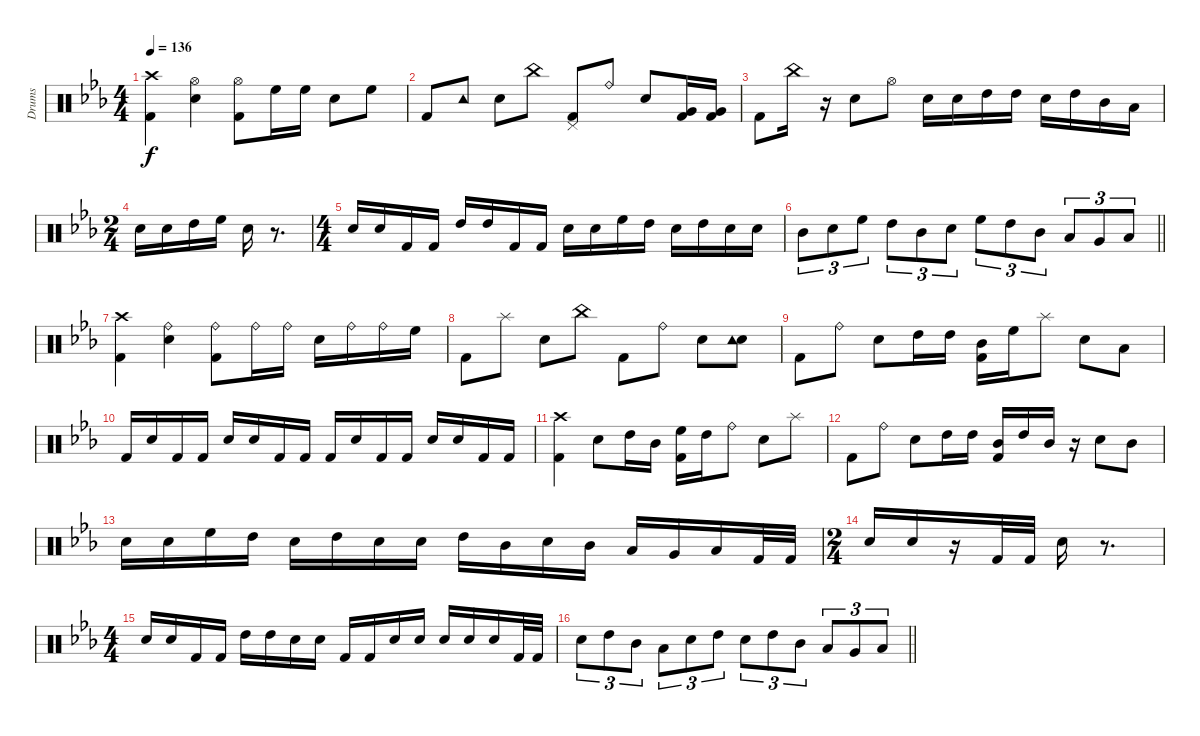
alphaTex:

\track ("Drums" "Drums") {instrument percussion}
\staff {score}
\articulation defaults
\ts (4 4)
\tempo 136
\clef neutral
\ks cminor
("Crash high (hit)" "Kick (hit) 2").4{dy f} ("Electric Snare (hit)" "Hi-Hat (open)").4 ("Kick (hit) 2" "Hi-Hat (open)").8 "High Floor Tom (hit)".16 "High Floor Tom (hit)".16 "Electric Snare (hit)".8 "High Floor Tom (hit)".8 |
"Kick (hit) 2".8 "Tambourine (hit)".8 "Electric Snare (hit)".8 "China (hit)".8 ("Kick (hit) 2" "Pedal Hi-Hat (hit)").8 "Ride (bell)".8 "Electric Snare (hit)".8 ("Kick (hit) 2" "Very Low Tom (hit)").16 ("Kick (hit) 2" "Very Low Tom (hit)").16 |
"Kick (hit) 2".8 "China (hit)".16 r.16 "Electric Snare (hit)".8 "Hi-Hat (open)".8 "Electric Snare (hit)".16 "Electric Snare (hit)".16 "High Tom (hit)".16 "High Tom (hit)".16 "Electric Snare (hit)".16 "High Tom (hit)".16 "Mid Tom (hit)".16 "Low Tom (hit)".16 |
\ts (2 4)
"Electric Snare (hit)".16 "Electric Snare (hit)".16 "High Tom (hit)".16 "High Floor Tom (hit)".16 "Electric Snare (hit)".16 r.8{d} |
\ts (4 4)
"Electric Snare (hit)".16 "Electric Snare (hit)".16 "Kick (hit) 2".16 "Kick (hit) 2".16 "High Tom (hit)".16 "High Tom (hit)".16 "Kick (hit) 2".16 "Kick (hit) 2".16 "Electric Snare (hit)".16 "Electric Snare (hit)".16 "High Floor Tom (hit)".16 "High Tom (hit)".16 "Electric Snare (hit)".16 "High Tom (hit)".16 "Electric Snare (hit)".16 "Electric Snare (hit)".16 |
\barLineRight lightlight "Mid Tom (hit)".8{tu (3 2)} "Electric Snare (hit)".8{tu (3 2)} "High Floor Tom (hit)".8{tu (3 2)} "High Tom (hit)".8{tu (3 2)} "Mid Tom (hit)".8{tu (3 2)} "Electric Snare (hit)".8{tu (3 2)} "High Floor Tom (hit)".8{tu (3 2)} "High Tom (hit)".8{tu (3 2)} "Mid Tom (hit)".8{tu (3 2)} "Low Tom (hit)".8{tu (3 2)} "Very Low Tom (hit)".8{tu (3 2)} "Low Floor Tom (hit)".8{tu (3 2)}
|
("Kick (hit) 2" "Crash high (hit)").4 ("Electric Snare (hit)" "Ride (bell)").4 ("Kick (hit) 2" "Ride (bell)").8 "Ride (bell)".16 "Ride (bell)".16 "Electric Snare (hit)".16 "Ride (bell)".16 "Ride (bell)".16 "High Floor Tom (hit)".16 |
"Kick (hit) 2".8 "Splash (hit)".8 "Electric Snare (hit)".8 "China (hit)".8 "Kick (hit) 2".8 "Ride (bell)".8 "Electric Snare (hit)".8 ("Electric Snare (hit)" "Tambourine (hit)").8 |
"Kick (hit) 2".8 "Ride (bell)".8 "Electric Snare (hit)".8 "High Tom (hit)".16 "High Tom (hit)".16 ("Kick (hit) 2" "Mid Tom (hit)").16 "High Floor Tom (hit)".16 "Splash (hit)".8 "Electric Snare (hit)".8 "Low Tom (hit)".8 |
"Kick (hit) 2".16 "Electric Snare (hit)".16 "Kick (hit) 2".16 "Kick (hit) 2".16 "Electric Snare (hit)".16 "Electric Snare (hit)".16 "Kick (hit) 2".16 "Kick (hit) 2".16 "Kick (hit) 2".16 "Electric Snare (hit)".16 "Kick (hit) 2".16 "Kick (hit) 2".16 "Electric Snare (hit)".16 "Electric Snare (hit)".16 "Kick (hit) 2".16 "Kick (hit) 2".16 |
("Crash high (hit)" "Kick (hit) 2").4 "Electric Snare (hit)".8 "High Tom (hit)".16 "Mid Tom (hit)".16 ("Kick (hit) 2" "High Floor Tom (hit)").16 "High Tom (hit)".16 "Ride (bell)".8 "Electric Snare (hit)".8 "Splash (hit)".8 |
"Kick (hit) 2".8 "Ride (bell)".8 "Electric Snare (hit)".8 "High Tom (hit)".16 "High Tom (hit)".16 ("Kick (hit) 2" "Mid Tom (hit)").16 "High Tom (hit)".16 "Mid Tom (hit)".16 r.16 "Electric Snare (hit)".8 "Mid Tom (hit)".8 |
"Electric Snare (hit)".16 "Electric Snare (hit)".16 "High Floor Tom (hit)".16 "High Tom (hit)".16 "Electric Snare (hit)".16 "High Tom (hit)".16 "Electric Snare (hit)".16 "Electric Snare (hit)".16 "High Tom (hit)".16 "Mid Tom (hit)".16 "Electric Snare (hit)".16 "Mid Tom (hit)".16 "Low Tom (hit)".16 "Very Low Tom (hit)".16 "Low Floor Tom (hit)".16 "Kick (hit) 2".32 "Kick (hit) 2".32 |
\ts (2 4)
"Electric Snare (hit)".16 "Electric Snare (hit)".16 r.16 "Kick (hit) 2".32 "Kick (hit) 2".32 "Electric Snare (hit)".16 r.8{d} |
\ts (4 4)
"Electric Snare (hit)".16 "Electric Snare (hit)".16 "Kick (hit) 2".16 "Kick (hit) 2".16 "High Tom (hit)".16 "High Tom (hit)".16 "Electric Snare (hit)".16 "Electric Snare (hit)".16 "Kick (hit) 2".16 "Kick (hit) 2".16 "Electric Snare (hit)".16 "Electric Snare (hit)".16 "Electric Snare (hit)".16 "Electric Snare (hit)".16 "Electric Snare (hit)".16 "Kick (hit) 2".32 "Kick (hit) 2".32 |
\barLineRight lightlight "Electric Snare (hit)".8{tu (3 2)} "High Tom (hit)".8{tu (3 2)} "Mid Tom (hit)".8{tu (3 2)} "Low Tom (hit)".8{tu (3 2)} "Electric Snare (hit)".8{tu (3 2)} "High Tom (hit)".8{tu (3 2)} "Electric Snare (hit)".8{tu (3 2)} "High Tom (hit)".8{tu (3 2)} "Mid Tom (hit)".8{tu (3 2)} "Low Tom (hit)".8{tu (3 2)} "Very Low Tom (hit)".8{tu (3 2)} "Low Floor Tom (hit)".8{tu (3 2)}
